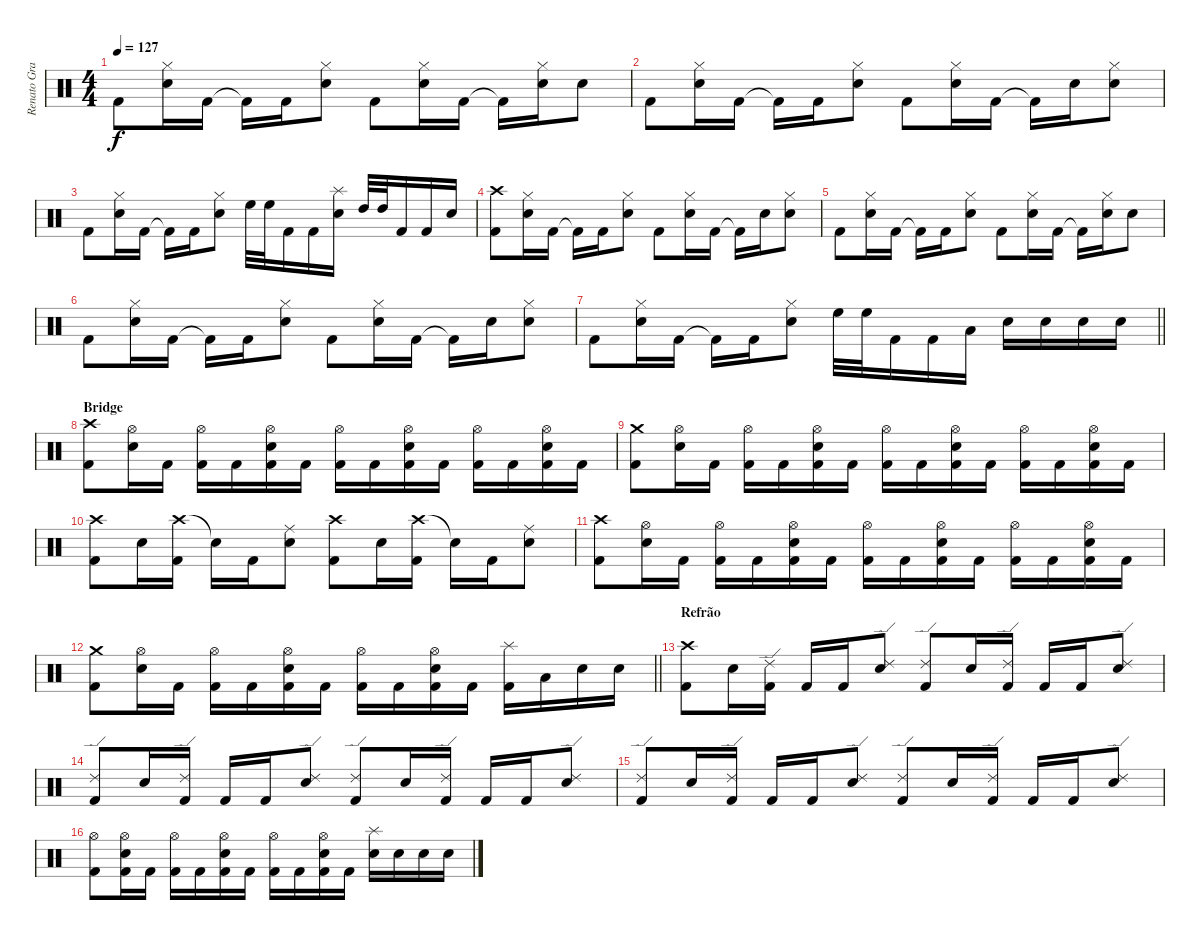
\track ("Renato Graccia (drums)" "Renato Gra") {instrument percussion}
\staff {score}
\articulation defaults
\ts (4 4)
\tempo 127
\clef neutral
\ks c "Kick (hit) 2".8{dy f}
("Hi-Hat (closed)" "Snare (hit) 2").16 "Kick (hit) 2".16 "Kick (hit) 2"{t}.16 "Kick (hit) 2".16 ("Hi-Hat (closed)" "Snare (hit) 2").8 "Kick (hit) 2".8 ("Hi-Hat (closed)" "Snare (hit) 2").16 "Kick (hit) 2".16 "Kick (hit) 2"{t}.16 ("Hi-Hat (closed)" "Snare (hit) 2").16 "Snare (hit) 2".8 |
"Kick (hit) 2".8 ("Hi-Hat (closed)" "Snare (hit) 2").16 "Kick (hit) 2".16 "Kick (hit) 2"{t}.16 "Kick (hit) 2".16 ("Hi-Hat (closed)" "Snare (hit) 2").8 "Kick (hit) 2".8 ("Hi-Hat (closed)" "Snare (hit) 2").16 "Kick (hit) 2".16 "Kick (hit) 2"{t}.16 "Snare (hit) 2".16 ("Hi-Hat (closed)" "Snare (hit) 2").8 |
"Kick (hit) 2".8 ("Hi-Hat (closed)" "Snare (hit) 2").16 "Kick (hit) 2".16 "Kick (hit) 2"{t}.16 "Kick (hit) 2".16 ("Hi-Hat (closed)" "Snare (hit) 2").8 "High Floor Tom (hit)".32 "High Floor Tom (hit)".32 "Kick (hit) 2".16 "Kick (hit) 2".16 ("Splash (hit)" "Snare (hit) 2").16 "High Tom (hit)".32 "High Tom (hit)".32 "Kick (hit) 2".16 "Kick (hit) 2".16 "Snare (hit) 2".16 |
("Crash high (hit)" "Kick (hit) 2").8 ("Hi-Hat (closed)" "Snare (hit) 2").16 "Kick (hit) 2".16 "Kick (hit) 2"{t}.16 "Kick (hit) 2".16 ("Hi-Hat (closed)" "Snare (hit) 2").8 "Kick (hit) 2".8 ("Hi-Hat (closed)" "Snare (hit) 2").16 "Kick (hit) 2".16 "Kick (hit) 2"{t}.16 "Snare (hit) 2".16 ("Hi-Hat (closed)" "Snare (hit) 2").8 |
"Kick (hit) 2".8 ("Hi-Hat (closed)" "Snare (hit) 2").16 "Kick (hit) 2".16 "Kick (hit) 2"{t}.16 "Kick (hit) 2".16 ("Hi-Hat (closed)" "Snare (hit) 2").8 "Kick (hit) 2".8 ("Hi-Hat (closed)" "Snare (hit) 2").16 "Kick (hit) 2".16 "Kick (hit) 2"{t}.16 ("Hi-Hat (closed)" "Snare (hit) 2").16 "Snare (hit) 2".8 |
"Kick (hit) 2".8 ("Hi-Hat (closed)" "Snare (hit) 2").16 "Kick (hit) 2".16 "Kick (hit) 2"{t}.16 "Kick (hit) 2".16 ("Hi-Hat (closed)" "Snare (hit) 2").8 "Kick (hit) 2".8 ("Hi-Hat (closed)" "Snare (hit) 2").16 "Kick (hit) 2".16 "Kick (hit) 2"{t}.16 "Snare (hit) 2".16 ("Hi-Hat (closed)" "Snare (hit) 2").8 |
\barLineRight lightlight "Kick (hit) 2".8
("Hi-Hat (closed)" "Snare (hit) 2").16 "Kick (hit) 2".16 "Kick (hit) 2"{t}.16 "Kick (hit) 2".16 ("Hi-Hat (closed)" "Snare (hit) 2").8 "High Floor Tom (hit)".32 "High Floor Tom (hit)".32 "Kick (hit) 2".16 "Kick (hit) 2".16 "Low Floor Tom (hit)".16 "Snare (hit) 2".16 "Snare (hit) 2".16 "Snare (hit) 2".16 "Snare (hit) 2".16 |
\section ("" "Bridge")
("Crash high (hit)" "Kick (hit) 2").8 ("Hi-Hat (open)" "Snare (hit) 2").16 "Kick (hit) 2".16 ("Hi-Hat (open)" "Kick (hit) 2").16 "Kick (hit) 2".16 ("Hi-Hat (open)" "Snare (hit) 2" "Kick (hit) 2").16 "Kick (hit) 2".16 ("Hi-Hat (open)" "Kick (hit) 2").16 "Kick (hit) 2".16 ("Hi-Hat (open)" "Snare (hit) 2" "Kick (hit) 2").16 "Kick (hit) 2".16 ("Hi-Hat (open)" "Kick (hit) 2").16 "Kick (hit) 2".16 ("Hi-Hat (open)" "Snare (hit) 2" "Kick (hit) 2").16 "Kick (hit) 2".16 |
("Crash medium (hit)" "Kick (hit) 2").8 ("Hi-Hat (open)" "Snare (hit) 2").16 "Kick (hit) 2".16 ("Hi-Hat (open)" "Kick (hit) 2").16 "Kick (hit) 2".16 ("Hi-Hat (open)" "Snare (hit) 2" "Kick (hit) 2").16 "Kick (hit) 2".16 ("Hi-Hat (open)" "Kick (hit) 2").16 "Kick (hit) 2".16 ("Hi-Hat (open)" "Snare (hit) 2" "Kick (hit) 2").16 "Kick (hit) 2".16 ("Hi-Hat (open)" "Kick (hit) 2").16 "Kick (hit) 2".16 ("Hi-Hat (open)" "Snare (hit) 2" "Kick (hit) 2").16 "Kick (hit) 2".16 |
("Crash high (hit)" "Kick (hit) 2").8 "Snare (hit) 2".16 ("Crash high (hit)" "Kick (hit) 2").16 "Snare (hit)"{t}.16 "Kick (hit) 2".16 ("Ride (middle)" "Snare (hit) 2").8 ("Crash high (hit)" "Kick (hit) 2").8 "Snare (hit) 2".16 ("Crash high (hit)" "Kick (hit) 2").16 "Snare (hit)"{t}.16 "Kick (hit) 2".16 ("Ride (middle)" "Snare (hit) 2").8 |
("Crash high (hit)" "Kick (hit) 2").8 ("Hi-Hat (open)" "Snare (hit) 2").16 "Kick (hit) 2".16 ("Hi-Hat (open)" "Kick (hit) 2").16 "Kick (hit) 2".16 ("Hi-Hat (open)" "Snare (hit) 2" "Kick (hit) 2").16 "Kick (hit) 2".16 ("Hi-Hat (open)" "Kick (hit) 2").16 "Kick (hit) 2".16 ("Hi-Hat (open)" "Snare (hit) 2" "Kick (hit) 2").16 "Kick (hit) 2".16 ("Hi-Hat (open)" "Kick (hit) 2").16 "Kick (hit) 2".16 ("Hi-Hat (open)" "Snare (hit) 2" "Kick (hit) 2").16 "Kick (hit) 2".16 |
\barLineRight lightlight
("Crash medium (hit)" "Kick (hit) 2").8 ("Hi-Hat (open)" "Snare (hit) 2").16 "Kick (hit) 2".16 ("Hi-Hat (open)" "Kick (hit) 2").16 "Kick (hit) 2".16 ("Hi-Hat (open)" "Snare (hit) 2" "Kick (hit) 2").16 "Kick (hit) 2".16 ("Hi-Hat (open)" "Kick (hit) 2").16 "Kick (hit) 2".16 ("Hi-Hat (open)" "Snare (hit) 2" "Kick (hit) 2").16 "Kick (hit) 2".16 ("Splash (hit)" "Kick (hit) 2").16 "Low Floor Tom (hit)".16 "Snare (hit) 2".16 "Snare (hit) 2".16 |
\section ("" "Refrão")
("Crash high (hit)" "Kick (hit) 2").8 "Snare (hit) 2".16 ("Ride (edge) 2" "Kick (hit) 2").16 "Kick (hit) 2".16 "Kick (hit) 2".16 ("Ride (edge) 2" "Snare (hit) 2").8 ("Ride (edge) 2" "Kick (hit) 2").8 "Snare (hit) 2".16 ("Ride (edge) 2" "Kick (hit) 2").16 "Kick (hit) 2".16 "Kick (hit) 2".16 ("Ride (edge) 2" "Snare (hit) 2").8 |
("Ride (edge) 2" "Kick (hit) 2").8 "Snare (hit) 2".16 ("Ride (edge) 2" "Kick (hit) 2").16 "Kick (hit) 2".16 "Kick (hit) 2".16 ("Ride (edge) 2" "Snare (hit) 2").8 ("Ride (edge) 2" "Kick (hit) 2").8 "Snare (hit) 2".16 ("Ride (edge) 2" "Kick (hit) 2").16 "Kick (hit) 2".16 "Kick (hit) 2".16 ("Ride (edge) 2" "Snare (hit) 2").8 |
("Ride (edge) 2" "Kick (hit) 2").8 "Snare (hit) 2".16 ("Ride (edge) 2" "Kick (hit) 2").16 "Kick (hit) 2".16 "Kick (hit) 2".16 ("Ride (edge) 2" "Snare (hit) 2").8 ("Ride (edge) 2" "Kick (hit) 2").8 "Snare (hit) 2".16 ("Ride (edge) 2" "Kick (hit) 2").16 "Kick (hit) 2".16 "Kick (hit) 2".16 ("Ride (edge) 2" "Snare (hit) 2").8 |
("Hi-Hat (open)" "Kick (hit) 2").8 ("Hi-Hat (open)" "Snare (hit) 2" "Kick (hit) 2").16 "Kick (hit) 2".16 ("Hi-Hat (open)" "Kick (hit) 2").16 "Kick (hit) 2".16 ("Hi-Hat (open)" "Snare (hit) 2" "Kick (hit) 2").16 "Kick (hit) 2".16 ("Hi-Hat (open)" "Kick (hit) 2").16 "Kick (hit) 2".16 ("Hi-Hat (open)" "Snare (hit) 2" "Kick (hit) 2").16 "Kick (hit) 2".16 ("Splash (hit)" "Snare (hit) 2").16 "Snare (hit) 2".16 "Snare (hit) 2".16 "Snare (hit) 2".16
